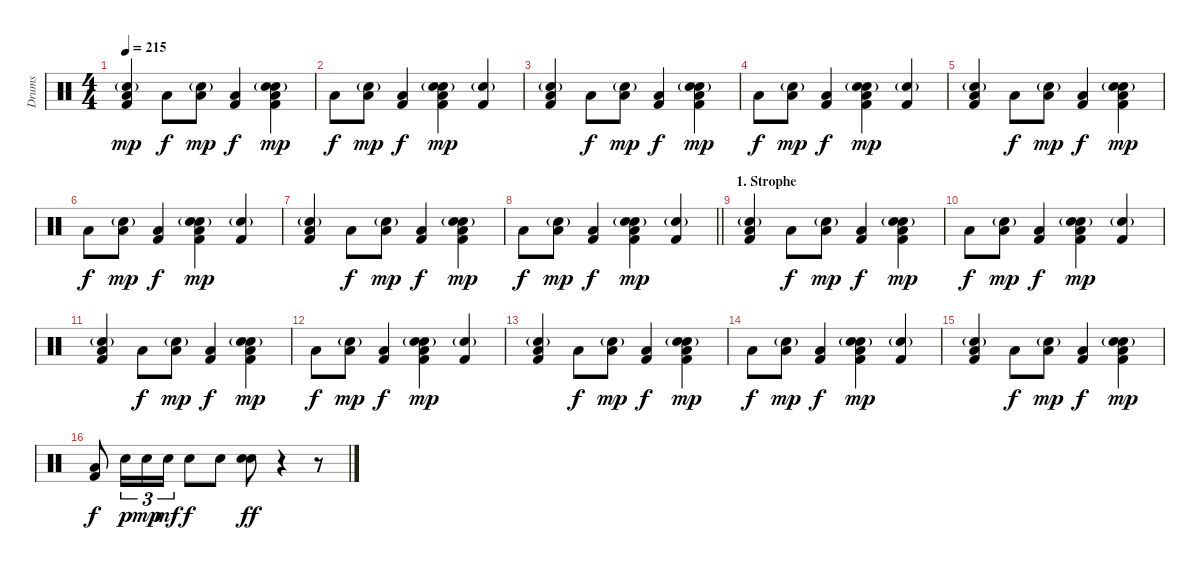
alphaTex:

\track ("Drums" "Drums") {instrument percussion}
\staff {score}
\articulation defaults
\ts (4 4)
\tempo 215
\clef neutral
\ks c
("Electric Snare (hit)"{g} "Low Floor Tom (hit)" "Kick (hit) 2").4{dy mp} "Low Floor Tom (hit)".8{dy f} ("Electric Snare (hit)"{g} "Low Floor Tom (hit)").8{dy mp} ("Low Floor Tom (hit)" "Kick (hit) 2").4{dy f} ("Electric Snare (hit)" "Kick (hit) 2" "Low Floor Tom (hit)" "Snare (hit) 2"{g}).4{dy mp} |
"Low Floor Tom (hit)".8{dy f} ("Electric Snare (hit)"{g} "Low Floor Tom (hit)").8{dy mp} ("Low Floor Tom (hit)" "Kick (hit) 2").4{dy f} ("Snare (hit) 2"{g} "Electric Snare (hit)" "Kick (hit) 2" "Low Floor Tom (hit)").4{dy mp} ("Electric Snare (hit)"{g} "Kick (hit) 2").4 |
("Electric Snare (hit)"{g} "Low Floor Tom (hit)" "Kick (hit) 2").4 "Low Floor Tom (hit)".8{dy f} ("Electric Snare (hit)"{g} "Low Floor Tom (hit)").8{dy mp} ("Low Floor Tom (hit)" "Kick (hit) 2").4{dy f} ("Electric Snare (hit)" "Kick (hit) 2" "Low Floor Tom (hit)" "Snare (hit) 2"{g}).4{dy mp} |
"Low Floor Tom (hit)".8{dy f} ("Electric Snare (hit)"{g} "Low Floor Tom (hit)").8{dy mp} ("Low Floor Tom (hit)" "Kick (hit) 2").4{dy f} ("Snare (hit) 2"{g} "Electric Snare (hit)" "Kick (hit) 2" "Low Floor Tom (hit)").4{dy mp} ("Electric Snare (hit)"{g} "Kick (hit) 2").4 |
("Electric Snare (hit)"{g} "Low Floor Tom (hit)" "Kick (hit) 2").4 "Low Floor Tom (hit)".8{dy f} ("Electric Snare (hit)"{g} "Low Floor Tom (hit)").8{dy mp} ("Low Floor Tom (hit)" "Kick (hit) 2").4{dy f} ("Electric Snare (hit)" "Kick (hit) 2" "Low Floor Tom (hit)" "Snare (hit) 2"{g}).4{dy mp} |
"Low Floor Tom (hit)".8{dy f} ("Electric Snare (hit)"{g} "Low Floor Tom (hit)").8{dy mp} ("Low Floor Tom (hit)" "Kick (hit) 2").4{dy f} ("Snare (hit) 2"{g} "Electric Snare (hit)" "Kick (hit) 2" "Low Floor Tom (hit)").4{dy mp} ("Electric Snare (hit)"{g} "Kick (hit) 2").4 |
("Electric Snare (hit)"{g} "Low Floor Tom (hit)" "Kick (hit) 2").4 "Low Floor Tom (hit)".8{dy f} ("Electric Snare (hit)"{g} "Low Floor Tom (hit)").8{dy mp} ("Low Floor Tom (hit)" "Kick (hit) 2").4{dy f} ("Electric Snare (hit)" "Kick (hit) 2" "Low Floor Tom (hit)" "Snare (hit) 2"{g}).4{dy mp} |
\barLineRight lightlight "Low Floor Tom (hit)".8{dy f}
("Electric Snare (hit)"{g} "Low Floor Tom (hit)").8{dy mp} ("Low Floor Tom (hit)" "Kick (hit) 2").4{dy f} ("Snare (hit) 2"{g} "Electric Snare (hit)" "Kick (hit) 2" "Low Floor Tom (hit)").4{dy mp} ("Electric Snare (hit)"{g} "Kick (hit) 2").4 |
\section ("" "1. Strophe")
("Electric Snare (hit)"{g} "Low Floor Tom (hit)" "Kick (hit) 2").4 "Low Floor Tom (hit)".8{dy f} ("Electric Snare (hit)"{g} "Low Floor Tom (hit)").8{dy mp} ("Low Floor Tom (hit)" "Kick (hit) 2").4{dy f} ("Electric Snare (hit)" "Kick (hit) 2" "Low Floor Tom (hit)" "Snare (hit) 2"{g}).4{dy mp} |
"Low Floor Tom (hit)".8{dy f} ("Electric Snare (hit)"{g} "Low Floor Tom (hit)").8{dy mp} ("Low Floor Tom (hit)" "Kick (hit) 2").4{dy f} ("Snare (hit) 2"{g} "Electric Snare (hit)" "Kick (hit) 2" "Low Floor Tom (hit)").4{dy mp} ("Electric Snare (hit)"{g} "Kick (hit) 2").4 |
("Electric Snare (hit)"{g} "Low Floor Tom (hit)" "Kick (hit) 2").4 "Low Floor Tom (hit)".8{dy f} ("Electric Snare (hit)"{g} "Low Floor Tom (hit)").8{dy mp} ("Low Floor Tom (hit)" "Kick (hit) 2").4{dy f} ("Electric Snare (hit)" "Kick (hit) 2" "Low Floor Tom (hit)" "Snare (hit) 2"{g}).4{dy mp} |
"Low Floor Tom (hit)".8{dy f} ("Electric Snare (hit)"{g} "Low Floor Tom (hit)").8{dy mp} ("Low Floor Tom (hit)" "Kick (hit) 2").4{dy f} ("Snare (hit) 2"{g} "Electric Snare (hit)" "Kick (hit) 2" "Low Floor Tom (hit)").4{dy mp} ("Electric Snare (hit)"{g} "Kick (hit) 2").4 |
("Electric Snare (hit)"{g} "Low Floor Tom (hit)" "Kick (hit) 2").4 "Low Floor Tom (hit)".8{dy f} ("Electric Snare (hit)"{g} "Low Floor Tom (hit)").8{dy mp} ("Low Floor Tom (hit)" "Kick (hit) 2").4{dy f} ("Electric Snare (hit)" "Kick (hit) 2" "Low Floor Tom (hit)" "Snare (hit) 2"{g}).4{dy mp} |
"Low Floor Tom (hit)".8{dy f} ("Electric Snare (hit)"{g} "Low Floor Tom (hit)").8{dy mp} ("Low Floor Tom (hit)" "Kick (hit) 2").4{dy f} ("Snare (hit) 2"{g} "Electric Snare (hit)" "Kick (hit) 2" "Low Floor Tom (hit)").4{dy mp} ("Electric Snare (hit)"{g} "Kick (hit) 2").4 |
("Electric Snare (hit)"{g} "Low Floor Tom (hit)" "Kick (hit) 2").4 "Low Floor Tom (hit)".8{dy f} ("Electric Snare (hit)"{g} "Low Floor Tom (hit)").8{dy mp} ("Low Floor Tom (hit)" "Kick (hit) 2").4{dy f} ("Electric Snare (hit)" "Kick (hit) 2" "Low Floor Tom (hit)" "Snare (hit) 2"{g}).4{dy mp} |
("Low Floor Tom (hit)" "Kick (hit) 2").8{dy f} "Snare (hit) 2".16{tu (3 2) dy p} "Snare (hit) 2".16{tu (3 2) dy mp} "Snare (hit) 2".16{tu (3 2) dy mf} "Snare (hit) 2".8{dy f} "Snare (hit) 2".8 ("Electric Snare (hit)" "Snare (hit) 2").8{dy ff} r.4 r.8
